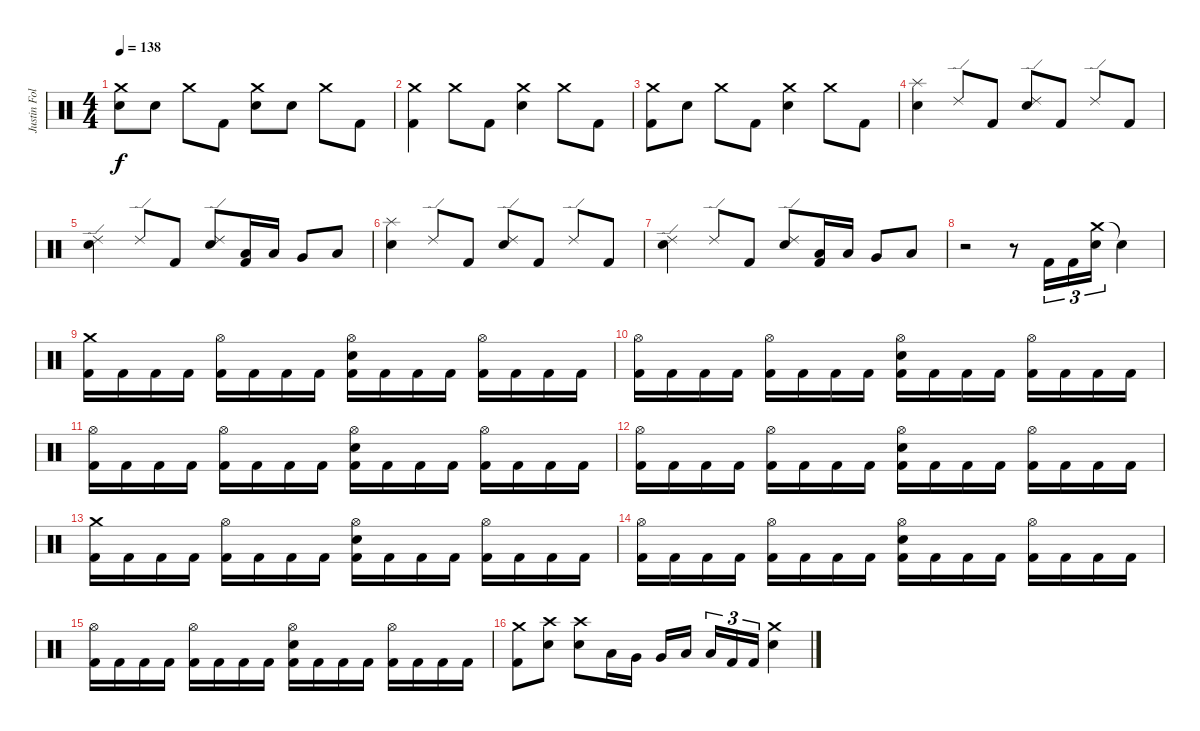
\track ("Justin Foley" "Justin Fol") {instrument percussion}
\staff {score}
\articulation defaults
\ts (4 4)
\tempo 138
\clef neutral
\ks c
("Crash medium (hit)" "Electric Snare (hit)").8{dy f} "Electric Snare (hit)".8 "Crash medium (hit)".8 "Kick (hit) 2".8 ("Crash medium (hit)" "Electric Snare (hit)").8 "Electric Snare (hit)".8 "Crash medium (hit)".8 "Kick (hit) 2".8 |
("Crash medium (hit)" "Kick (hit) 2").4 "Crash medium (hit)".8 "Kick (hit) 2".8 ("Crash medium (hit)" "Electric Snare (hit)").4 "Crash medium (hit)".8 "Kick (hit) 2".8 |
("Crash medium (hit)" "Kick (hit) 2").8 "Electric Snare (hit)".8 "Crash medium (hit)".8 "Kick (hit) 2".8 ("Crash medium (hit)" "Electric Snare (hit)").4 "Crash medium (hit)".8 "Kick (hit) 2".8 |
("Splash (hit)" "Electric Snare (hit)").4 "Ride (edge) 2".8 "Kick (hit) 2".8 ("Ride (edge) 2" "Electric Snare (hit)").8 "Kick (hit) 2".8 "Ride (edge) 2".8 "Kick (hit) 2".8 |
("Ride (edge) 2" "Electric Snare (hit)").4 "Ride (edge) 2".8 "Kick (hit) 2".8 ("Ride (edge) 2" "Electric Snare (hit)").8 ("Low Tom (hit)" "Kick (hit) 2").16 "Low Tom (hit)".16 "Very Low Tom (hit)".8 "Low Floor Tom (hit)".8 |
("Splash (hit)" "Electric Snare (hit)").4 "Ride (edge) 2".8 "Kick (hit) 2".8 ("Ride (edge) 2" "Electric Snare (hit)").8 "Kick (hit) 2".8 "Ride (edge) 2".8 "Kick (hit) 2".8 |
("Ride (edge) 2" "Electric Snare (hit)").4 "Ride (edge) 2".8 "Kick (hit) 2".8 ("Ride (edge) 2" "Electric Snare (hit)").8 ("Low Tom (hit)" "Kick (hit) 2").16 "Low Tom (hit)".16 "Very Low Tom (hit)".8 "Low Floor Tom (hit)".8 |
r.2 r.8 "Kick (hit) 2".16{tu (3 2)} "Kick (hit) 2".16{tu (3 2)} ("Crash medium (hit)" "Electric Snare (hit)").16{tu (3 2)} "Snare (hit)"{t}.4 |
("Crash medium (hit)" "Kick (hit) 2").16 "Kick (hit) 2".16 "Kick (hit) 2".16 "Kick (hit) 2".16 ("Hi-Hat (open)" "Kick (hit) 2").16 "Kick (hit) 2".16 "Kick (hit) 2".16 "Kick (hit) 2".16 ("Hi-Hat (open)" "Electric Snare (hit)" "Kick (hit) 2").16 "Kick (hit) 2".16 "Kick (hit) 2".16 "Kick (hit) 2".16 ("Hi-Hat (open)" "Kick (hit) 2").16 "Kick (hit) 2".16 "Kick (hit) 2".16 "Kick (hit) 2".16 |
("Hi-Hat (open)" "Kick (hit) 2").16 "Kick (hit) 2".16 "Kick (hit) 2".16 "Kick (hit) 2".16 ("Hi-Hat (open)" "Kick (hit) 2").16 "Kick (hit) 2".16 "Kick (hit) 2".16 "Kick (hit) 2".16 ("Hi-Hat (open)" "Electric Snare (hit)" "Kick (hit) 2").16 "Kick (hit) 2".16 "Kick (hit) 2".16 "Kick (hit) 2".16 ("Hi-Hat (open)" "Kick (hit) 2").16 "Kick (hit) 2".16 "Kick (hit) 2".16 "Kick (hit) 2".16 |
("Hi-Hat (open)" "Kick (hit) 2").16 "Kick (hit) 2".16 "Kick (hit) 2".16 "Kick (hit) 2".16 ("Hi-Hat (open)" "Kick (hit) 2").16 "Kick (hit) 2".16 "Kick (hit) 2".16 "Kick (hit) 2".16 ("Hi-Hat (open)" "Electric Snare (hit)" "Kick (hit) 2").16 "Kick (hit) 2".16 "Kick (hit) 2".16 "Kick (hit) 2".16 ("Hi-Hat (open)" "Kick (hit) 2").16 "Kick (hit) 2".16 "Kick (hit) 2".16 "Kick (hit) 2".16 |
("Hi-Hat (open)" "Kick (hit) 2").16 "Kick (hit) 2".16 "Kick (hit) 2".16 "Kick (hit) 2".16 ("Hi-Hat (open)" "Kick (hit) 2").16 "Kick (hit) 2".16 "Kick (hit) 2".16 "Kick (hit) 2".16 ("Hi-Hat (open)" "Electric Snare (hit)" "Kick (hit) 2").16 "Kick (hit) 2".16 "Kick (hit) 2".16 "Kick (hit) 2".16 ("Hi-Hat (open)" "Kick (hit) 2").16 "Kick (hit) 2".16 "Kick (hit) 2".16 "Kick (hit) 2".16 |
("Crash medium (hit)" "Kick (hit) 2").16 "Kick (hit) 2".16 "Kick (hit) 2".16 "Kick (hit) 2".16 ("Hi-Hat (open)" "Kick (hit) 2").16 "Kick (hit) 2".16 "Kick (hit) 2".16 "Kick (hit) 2".16 ("Hi-Hat (open)" "Electric Snare (hit)" "Kick (hit) 2").16 "Kick (hit) 2".16 "Kick (hit) 2".16 "Kick (hit) 2".16 ("Hi-Hat (open)" "Kick (hit) 2").16 "Kick (hit) 2".16 "Kick (hit) 2".16 "Kick (hit) 2".16 |
("Hi-Hat (open)" "Kick (hit) 2").16 "Kick (hit) 2".16 "Kick (hit) 2".16 "Kick (hit) 2".16 ("Hi-Hat (open)" "Kick (hit) 2").16 "Kick (hit) 2".16 "Kick (hit) 2".16 "Kick (hit) 2".16 ("Hi-Hat (open)" "Electric Snare (hit)" "Kick (hit) 2").16 "Kick (hit) 2".16 "Kick (hit) 2".16 "Kick (hit) 2".16 ("Hi-Hat (open)" "Kick (hit) 2").16 "Kick (hit) 2".16 "Kick (hit) 2".16 "Kick (hit) 2".16 |
("Hi-Hat (open)" "Kick (hit) 2").16 "Kick (hit) 2".16 "Kick (hit) 2".16 "Kick (hit) 2".16 ("Hi-Hat (open)" "Kick (hit) 2").16 "Kick (hit) 2".16 "Kick (hit) 2".16 "Kick (hit) 2".16 ("Hi-Hat (open)" "Electric Snare (hit)" "Kick (hit) 2").16 "Kick (hit) 2".16 "Kick (hit) 2".16 "Kick (hit) 2".16 ("Hi-Hat (open)" "Kick (hit) 2").16 "Kick (hit) 2".16 "Kick (hit) 2".16 "Kick (hit) 2".16 |
("Crash medium (hit)" "Kick (hit) 2").8 ("Crash high (hit)" "Electric Snare (hit)").8 ("Crash high (hit)" "Electric Snare (hit)").8 "Low Tom (hit)".16 "Very Low Tom (hit)".16 "Very Low Tom (hit)".16 "Low Floor Tom (hit)".16{beam splitsecondary} "Low Floor Tom (hit)".16{tu (3 2)} "Kick (hit) 2".16{tu (3 2)} "Kick (hit) 2".16{tu (3 2)} ("Crash medium (hit)" "Electric Snare (hit)").4
